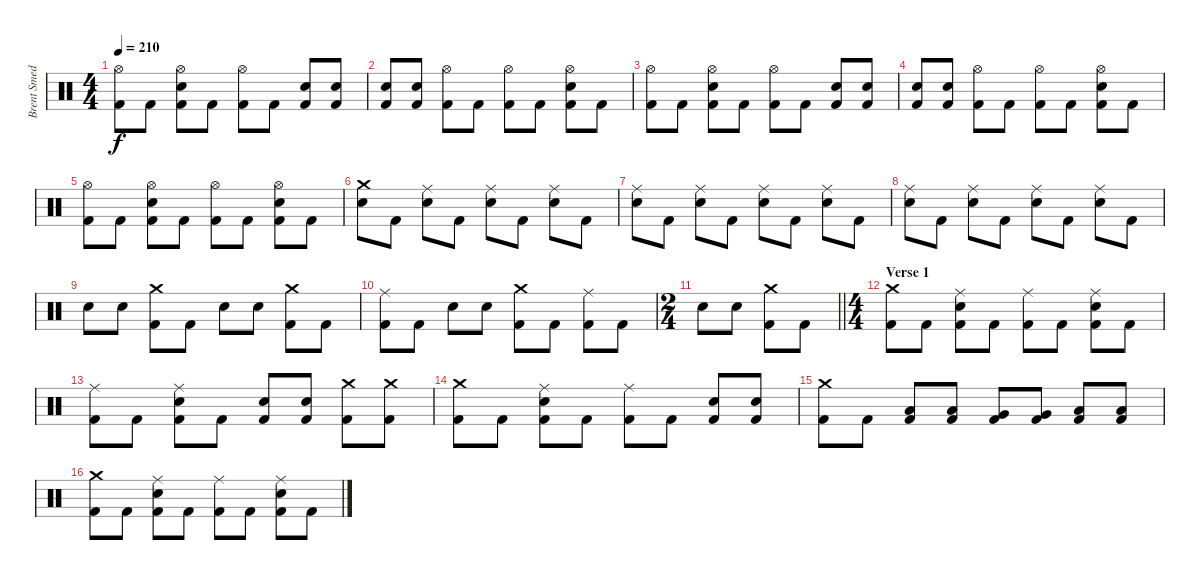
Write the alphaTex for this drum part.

\track ("Brent Smedley" "Brent Smed") {instrument percussion}
\staff {score}
\articulation defaults
\ts (4 4)
\tempo 210
\clef neutral
\ks c
("Hi-Hat (open)" "Kick (hit) 2").8{dy f} "Kick (hit) 2".8 ("Hi-Hat (open)" "Electric Snare (hit)" "Kick (hit) 2").8 "Kick (hit) 2".8 ("Hi-Hat (open)" "Kick (hit) 2").8 "Kick (hit) 2".8 ("Electric Snare (hit)" "Kick (hit) 2").8 ("Electric Snare (hit)" "Kick (hit) 2").8 |
("Electric Snare (hit)" "Kick (hit) 2").8 ("Electric Snare (hit)" "Kick (hit) 2").8 ("Hi-Hat (open)" "Kick (hit) 2").8 "Kick (hit) 2".8 ("Hi-Hat (open)" "Kick (hit) 2").8 "Kick (hit) 2".8 ("Hi-Hat (open)" "Electric Snare (hit)" "Kick (hit) 2").8 "Kick (hit) 2".8 |
("Hi-Hat (open)" "Kick (hit) 2").8 "Kick (hit) 2".8 ("Hi-Hat (open)" "Electric Snare (hit)" "Kick (hit) 2").8 "Kick (hit) 2".8 ("Hi-Hat (open)" "Kick (hit) 2").8 "Kick (hit) 2".8 ("Electric Snare (hit)" "Kick (hit) 2").8 ("Electric Snare (hit)" "Kick (hit) 2").8 |
("Electric Snare (hit)" "Kick (hit) 2").8 ("Electric Snare (hit)" "Kick (hit) 2").8 ("Hi-Hat (open)" "Kick (hit) 2").8 "Kick (hit) 2".8 ("Hi-Hat (open)" "Kick (hit) 2").8 "Kick (hit) 2".8 ("Hi-Hat (open)" "Electric Snare (hit)" "Kick (hit) 2").8 "Kick (hit) 2".8 |
("Hi-Hat (open)" "Kick (hit) 2").8 "Kick (hit) 2".8 ("Hi-Hat (open)" "Electric Snare (hit)" "Kick (hit) 2").8 "Kick (hit) 2".8 ("Hi-Hat (open)" "Kick (hit) 2").8 "Kick (hit) 2".8 ("Hi-Hat (open)" "Electric Snare (hit)" "Kick (hit) 2").8 "Kick (hit) 2".8 |
("Crash medium (hit)" "Electric Snare (hit)").8 "Kick (hit) 2".8 ("Ride (middle)" "Electric Snare (hit)").8 "Kick (hit) 2".8 ("Ride (middle)" "Electric Snare (hit)").8 "Kick (hit) 2".8 ("Ride (middle)" "Electric Snare (hit)").8 "Kick (hit) 2".8 |
("Ride (middle)" "Electric Snare (hit)").8 "Kick (hit) 2".8 ("Ride (middle)" "Electric Snare (hit)").8 "Kick (hit) 2".8 ("Ride (middle)" "Electric Snare (hit)").8 "Kick (hit) 2".8 ("Ride (middle)" "Electric Snare (hit)").8 "Kick (hit) 2".8 |
("Ride (middle)" "Electric Snare (hit)").8 "Kick (hit) 2".8 ("Ride (middle)" "Electric Snare (hit)").8 "Kick (hit) 2".8 ("Ride (middle)" "Electric Snare (hit)").8 "Kick (hit) 2".8 ("Ride (middle)" "Electric Snare (hit)").8 "Kick (hit) 2".8 |
"Electric Snare (hit)".8 "Electric Snare (hit)".8 ("Crash medium (hit)" "Kick (hit) 2").8 "Kick (hit) 2".8 "Electric Snare (hit)".8 "Electric Snare (hit)".8 ("Crash medium (hit)" "Kick (hit) 2").8 "Kick (hit) 2".8 |
("Ride (middle)" "Kick (hit) 2").8 "Kick (hit) 2".8 "Electric Snare (hit)".8 "Electric Snare (hit)".8 ("Crash medium (hit)" "Kick (hit) 2").8 "Kick (hit) 2".8 ("Ride (middle)" "Kick (hit) 2").8 "Kick (hit) 2".8 |
\ts (2 4)
\barLineRight lightlight "Electric Snare (hit)".8 "Electric Snare (hit)".8
("Crash medium (hit)" "Kick (hit) 2").8 "Kick (hit) 2".8 |
\ts (4 4)
\section ("" "Verse 1")
("Crash medium (hit)" "Kick (hit) 2").8 "Kick (hit) 2".8 ("Ride (middle)" "Electric Snare (hit)" "Kick (hit) 2").8 "Kick (hit) 2".8 ("Ride (middle)" "Kick (hit) 2").8 "Kick (hit) 2".8 ("Ride (middle)" "Electric Snare (hit)" "Kick (hit) 2").8 "Kick (hit) 2".8 |
("Ride (middle)" "Kick (hit) 2").8 "Kick (hit) 2".8 ("Ride (middle)" "Electric Snare (hit)" "Kick (hit) 2").8 "Kick (hit) 2".8 ("Electric Snare (hit)" "Kick (hit) 2").8 ("Electric Snare (hit)" "Kick (hit) 2").8 ("Crash medium (hit)" "Kick (hit) 2").8 ("Crash medium (hit)" "Kick (hit) 2").8 |
("Crash medium (hit)" "Kick (hit) 2").8 "Kick (hit) 2".8 ("Ride (middle)" "Electric Snare (hit)" "Kick (hit) 2").8 "Kick (hit) 2".8 ("Ride (middle)" "Kick (hit) 2").8 "Kick (hit) 2".8 ("Electric Snare (hit)" "Kick (hit) 2").8 ("Electric Snare (hit)" "Kick (hit) 2").8 |
("Crash medium (hit)" "Kick (hit) 2").8 "Kick (hit) 2".8 ("Low Floor Tom (hit)" "Kick (hit) 2").8 ("Low Floor Tom (hit)" "Kick (hit) 2").8 ("Very Low Tom (hit)" "Kick (hit) 2").8 ("Very Low Tom (hit)" "Kick (hit) 2").8 ("Low Floor Tom (hit)" "Kick (hit) 2").8 ("Low Floor Tom (hit)" "Kick (hit) 2").8 |
("Crash medium (hit)" "Kick (hit) 2").8 "Kick (hit) 2".8 ("Ride (middle)" "Electric Snare (hit)" "Kick (hit) 2").8 "Kick (hit) 2".8 ("Ride (middle)" "Kick (hit) 2").8 "Kick (hit) 2".8 ("Ride (middle)" "Electric Snare (hit)" "Kick (hit) 2").8 "Kick (hit) 2".8
